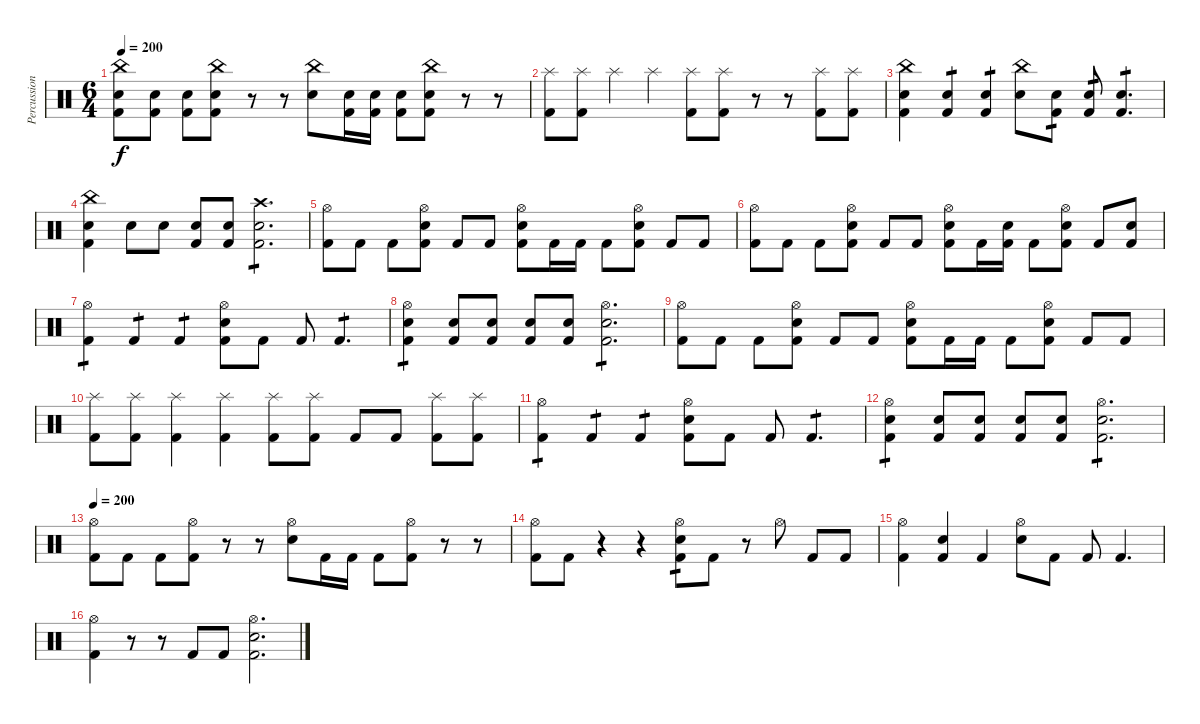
\track ("Percussion" "Percussion") {instrument percussion}
\staff {score}
\articulation defaults
\ts (6 4)
\tempo 200
\clef neutral
\ks c
("China (hit)" "Electric Snare (hit)" "Kick (hit) 2").8{dy f} ("Electric Snare (hit)" "Kick (hit) 2").8 ("Electric Snare (hit)" "Kick (hit) 2").8 ("China (hit)" "Electric Snare (hit)" "Kick (hit) 2").8 r.8 r.8 ("China (hit)" "Electric Snare (hit)").8 ("Electric Snare (hit)" "Kick (hit) 2").16 ("Electric Snare (hit)" "Kick (hit) 2").16 ("Electric Snare (hit)" "Kick (hit) 2").8 ("China (hit)" "Electric Snare (hit)" "Kick (hit) 2").8 r.8 r.8 |
("Splash (hit)" "Kick (hit) 2").8 ("Splash (hit)" "Kick (hit) 2").8 "Splash (hit)".4 "Splash (hit)".4 ("Splash (hit)" "Kick (hit) 2").8 ("Splash (hit)" "Kick (hit) 2").8 r.8 r.8 ("Splash (hit)" "Kick (hit) 2").8 ("Splash (hit)" "Kick (hit) 2").8 |
("China (hit)" "Electric Snare (hit)" "Kick (hit) 2").4 ("Electric Snare (hit)" "Kick (hit) 2").4{tp 1} ("Electric Snare (hit)" "Kick (hit) 2").4{tp 1} ("China (hit)" "Electric Snare (hit)").8 ("Electric Snare (hit)" "Kick (hit) 2").8{tp 1} ("Electric Snare (hit)" "Kick (hit) 2").8{tp 1} ("Electric Snare (hit)" "Kick (hit) 2").4{d tp 1} |
("China (hit)" "Electric Snare (hit)" "Kick (hit) 2").4 "Electric Snare (hit)".8 "Electric Snare (hit)".8 ("Electric Snare (hit)" "Kick (hit) 2").8 ("Electric Snare (hit)" "Kick (hit) 2").8 ("Crash high (hit)" "Electric Snare (hit)" "Kick (hit) 2").2{d tp 1} |
("Hi-Hat (open)" "Kick (hit) 2").8 "Kick (hit) 2".8 "Kick (hit) 2".8 ("Hi-Hat (open)" "Electric Snare (hit)" "Kick (hit) 2").8 "Kick (hit) 2".8 "Kick (hit) 2".8 ("Hi-Hat (open)" "Electric Snare (hit)" "Kick (hit) 2").8 "Kick (hit) 2".16 "Kick (hit) 2".16 "Kick (hit) 2".8 ("Hi-Hat (open)" "Electric Snare (hit)" "Kick (hit) 2").8 "Kick (hit) 2".8 "Kick (hit) 2".8 |
("Hi-Hat (open)" "Kick (hit) 2").8 "Kick (hit) 2".8 "Kick (hit) 2".8 ("Hi-Hat (open)" "Electric Snare (hit)" "Kick (hit) 2").8 "Kick (hit) 2".8 "Kick (hit) 2".8 ("Hi-Hat (open)" "Electric Snare (hit)" "Kick (hit) 2").8 "Kick (hit) 2".16 ("Electric Snare (hit)" "Kick (hit) 2").16 "Kick (hit) 2".8 ("Hi-Hat (open)" "Electric Snare (hit)" "Kick (hit) 2").8 "Kick (hit) 2".8 ("Electric Snare (hit)" "Kick (hit) 2").8 |
("Hi-Hat (open)" "Kick (hit) 2").4{tp 1} "Kick (hit) 2".4{tp 1} "Kick (hit) 2".4{tp 1} ("Hi-Hat (open)" "Electric Snare (hit)" "Kick (hit) 2").8 "Kick (hit) 2".8 "Kick (hit) 2".8 "Kick (hit) 2".4{d tp 1} |
("Hi-Hat (open)" "Electric Snare (hit)" "Kick (hit) 2").4{tp 1} ("Electric Snare (hit)" "Kick (hit) 2").8 ("Electric Snare (hit)" "Kick (hit) 2").8 ("Electric Snare (hit)" "Kick (hit) 2").8 ("Electric Snare (hit)" "Kick (hit) 2").8 ("Hi-Hat (open)" "Electric Snare (hit)" "Kick (hit) 2").2{d tp 1} |
("Hi-Hat (open)" "Kick (hit) 2").8 "Kick (hit) 2".8 "Kick (hit) 2".8 ("Hi-Hat (open)" "Electric Snare (hit)" "Kick (hit) 2").8 "Kick (hit) 2".8 "Kick (hit) 2".8 ("Hi-Hat (open)" "Electric Snare (hit)" "Kick (hit) 2").8 "Kick (hit) 2".16 "Kick (hit) 2".16 "Kick (hit) 2".8 ("Hi-Hat (open)" "Electric Snare (hit)" "Kick (hit) 2").8 "Kick (hit) 2".8 "Kick (hit) 2".8 |
("Splash (hit)" "Kick (hit) 2").8 ("Splash (hit)" "Kick (hit) 2").8 ("Splash (hit)" "Kick (hit) 2").4 ("Splash (hit)" "Kick (hit) 2").4 ("Splash (hit)" "Kick (hit) 2").8 ("Splash (hit)" "Kick (hit) 2").8 "Kick (hit) 2".8 "Kick (hit) 2".8 ("Splash (hit)" "Kick (hit) 2").8 ("Splash (hit)" "Kick (hit) 2").8 |
("Hi-Hat (open)" "Kick (hit) 2").4{tp 1} "Kick (hit) 2".4{tp 1} "Kick (hit) 2".4{tp 1} ("Hi-Hat (open)" "Electric Snare (hit)" "Kick (hit) 2").8 "Kick (hit) 2".8 "Kick (hit) 2".8 "Kick (hit) 2".4{d tp 1} |
("Hi-Hat (open)" "Electric Snare (hit)" "Kick (hit) 2").4{tp 1} ("Electric Snare (hit)" "Kick (hit) 2").8 ("Electric Snare (hit)" "Kick (hit) 2").8 ("Electric Snare (hit)" "Kick (hit) 2").8 ("Electric Snare (hit)" "Kick (hit) 2").8 ("Hi-Hat (open)" "Electric Snare (hit)" "Kick (hit) 2").2{d tp 1} |
\tempo 200
("Hi-Hat (open)" "Kick (hit) 2").8{volume 11} "Kick (hit) 2".8 "Kick (hit) 2".8 ("Hi-Hat (open)" "Kick (hit) 2").8 r.8 r.8 ("Hi-Hat (open)" "Electric Snare (hit)").8 "Kick (hit) 2".16 "Kick (hit) 2".16 "Kick (hit) 2".8 ("Hi-Hat (open)" "Kick (hit) 2").8 r.8 r.8 |
("Hi-Hat (open)" "Kick (hit) 2").8 "Kick (hit) 2".8 r.4 r.4 ("Hi-Hat (open)" "Electric Snare (hit)" "Kick (hit) 2").8{tp 1} "Kick (hit) 2".8 r.8 "Hi-Hat (open)".8 "Kick (hit) 2".8 "Kick (hit) 2".8 |
("Hi-Hat (open)" "Kick (hit) 2").4 ("Snare (hit)" "Kick (hit) 2").4 "Kick (hit) 2".4 ("Hi-Hat (open)" "Electric Snare (hit)").8 "Kick (hit) 2".8 "Kick (hit) 2".8 "Kick (hit) 2".4{d} |
("Hi-Hat (open)" "Kick (hit) 2").4 r.8 r.8 "Kick (hit) 2".8 "Kick (hit) 2".8 ("Hi-Hat (open)" "Electric Snare (hit)" "Kick (hit) 2").2{d}
